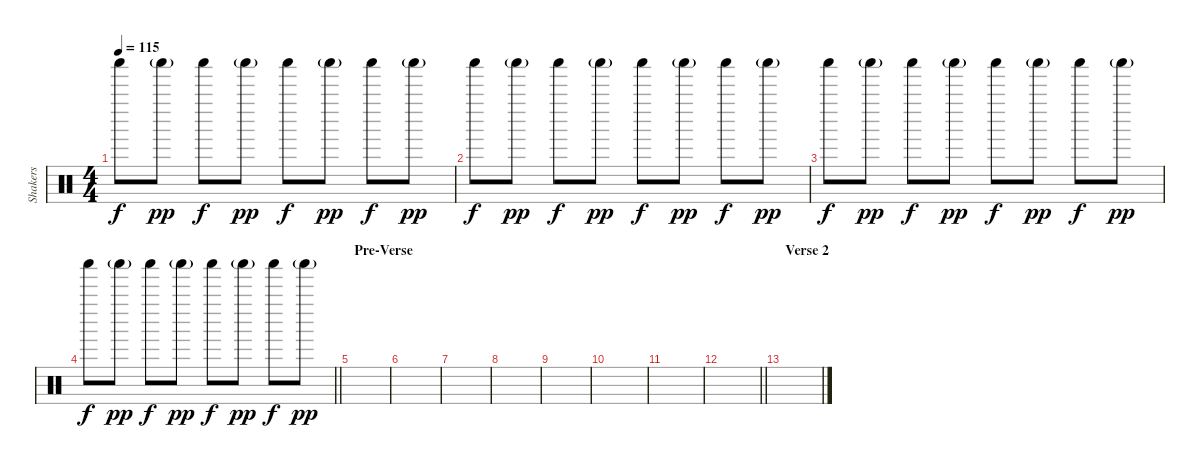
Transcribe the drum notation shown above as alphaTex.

\track ("Shakers" "Shakers") {instrument percussion}
\staff {score}
\articulation defaults
\ts (4 4)
\tempo 115
\clef neutral
\ks c "Shaker (hit)".8{dy f} "Shaker (hit)"{g}.8{dy pp} "Shaker (hit)".8{dy f} "Shaker (hit)"{g}.8{dy pp} "Shaker (hit)".8{dy f} "Shaker (hit)"{g}.8{dy pp} "Shaker (hit)".8{dy f} "Shaker (hit)"{g}.8{dy pp}
|
"Shaker (hit)".8{dy f} "Shaker (hit)"{g}.8{dy pp} "Shaker (hit)".8{dy f} "Shaker (hit)"{g}.8{dy pp} "Shaker (hit)".8{dy f} "Shaker (hit)"{g}.8{dy pp} "Shaker (hit)".8{dy f} "Shaker (hit)"{g}.8{dy pp} |
"Shaker (hit)".8{dy f} "Shaker (hit)"{g}.8{dy pp} "Shaker (hit)".8{dy f} "Shaker (hit)"{g}.8{dy pp} "Shaker (hit)".8{dy f} "Shaker (hit)"{g}.8{dy pp} "Shaker (hit)".8{dy f} "Shaker (hit)"{g}.8{dy pp} |
\barLineRight lightlight "Shaker (hit)".8{dy f} "Shaker (hit)"{g}.8{dy pp} "Shaker (hit)".8{dy f} "Shaker (hit)"{g}.8{dy pp} "Shaker (hit)".8{dy f} "Shaker (hit)"{g}.8{dy pp} "Shaker (hit)".8{dy f} "Shaker (hit)"{g}.8{dy pp}
|
\section ("" "Pre-Verse")
|
|
|
|
|
|
|
\barLineRight lightlight
|
\section ("" "Verse 2")
